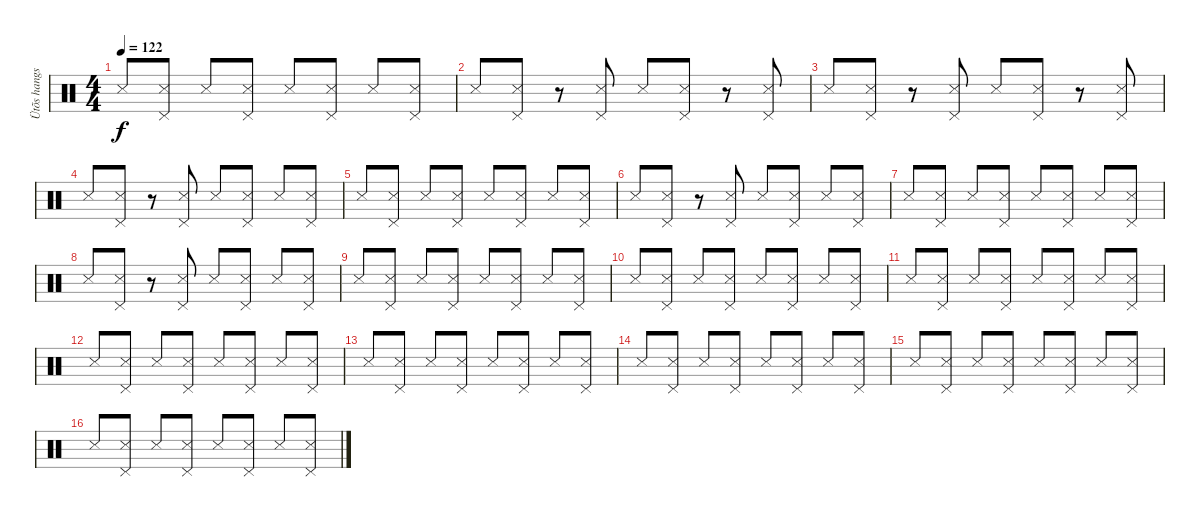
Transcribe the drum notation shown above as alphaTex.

\track ("Ütõs hangszer" "Ütõs hangs") {instrument percussion}
\staff {score}
\articulation defaults
\ts (4 4)
\tempo 122
\clef neutral
\ks c "Snare (side stick) 3".8{dy f}
("Snare (side stick) 3" "Pedal Hi-Hat (hit)").8 "Snare (side stick) 3".8 ("Snare (side stick) 3" "Pedal Hi-Hat (hit)").8 "Snare (side stick) 3".8 ("Snare (side stick) 3" "Pedal Hi-Hat (hit)").8 "Snare (side stick) 3".8 ("Snare (side stick) 3" "Pedal Hi-Hat (hit)").8 |
"Snare (side stick) 3".8 ("Snare (side stick) 3" "Pedal Hi-Hat (hit)").8 r.8 ("Snare (side stick) 3" "Pedal Hi-Hat (hit)").8 "Snare (side stick) 3".8 ("Snare (side stick) 3" "Pedal Hi-Hat (hit)").8 r.8 ("Snare (side stick) 3" "Pedal Hi-Hat (hit)").8 |
"Snare (side stick) 3".8 ("Snare (side stick) 3" "Pedal Hi-Hat (hit)").8 r.8 ("Snare (side stick) 3" "Pedal Hi-Hat (hit)").8 "Snare (side stick) 3".8 ("Snare (side stick) 3" "Pedal Hi-Hat (hit)").8 r.8 ("Snare (side stick) 3" "Pedal Hi-Hat (hit)").8 |
"Snare (side stick) 3".8 ("Snare (side stick) 3" "Pedal Hi-Hat (hit)").8 r.8 ("Snare (side stick) 3" "Pedal Hi-Hat (hit)").8 "Snare (side stick) 3".8 ("Snare (side stick) 3" "Pedal Hi-Hat (hit)").8 "Snare (side stick) 3".8 ("Snare (side stick) 3" "Pedal Hi-Hat (hit)").8 |
"Snare (side stick) 3".8 ("Snare (side stick) 3" "Pedal Hi-Hat (hit)").8 "Snare (side stick) 3".8 ("Snare (side stick) 3" "Pedal Hi-Hat (hit)").8 "Snare (side stick) 3".8 ("Snare (side stick) 3" "Pedal Hi-Hat (hit)").8 "Snare (side stick) 3".8 ("Snare (side stick) 3" "Pedal Hi-Hat (hit)").8 |
"Snare (side stick) 3".8 ("Snare (side stick) 3" "Pedal Hi-Hat (hit)").8 r.8 ("Snare (side stick) 3" "Pedal Hi-Hat (hit)").8 "Snare (side stick) 3".8 ("Snare (side stick) 3" "Pedal Hi-Hat (hit)").8 "Snare (side stick) 3".8 ("Snare (side stick) 3" "Pedal Hi-Hat (hit)").8 |
"Snare (side stick) 3".8 ("Snare (side stick) 3" "Pedal Hi-Hat (hit)").8 "Snare (side stick) 3".8 ("Snare (side stick) 3" "Pedal Hi-Hat (hit)").8 "Snare (side stick) 3".8 ("Snare (side stick) 3" "Pedal Hi-Hat (hit)").8 "Snare (side stick) 3".8 ("Snare (side stick) 3" "Pedal Hi-Hat (hit)").8 |
"Snare (side stick) 3".8 ("Snare (side stick) 3" "Pedal Hi-Hat (hit)").8 r.8 ("Snare (side stick) 3" "Pedal Hi-Hat (hit)").8 "Snare (side stick) 3".8 ("Snare (side stick) 3" "Pedal Hi-Hat (hit)").8 "Snare (side stick) 3".8 ("Snare (side stick) 3" "Pedal Hi-Hat (hit)").8 |
"Snare (side stick) 3".8 ("Snare (side stick) 3" "Pedal Hi-Hat (hit)").8 "Snare (side stick) 3".8 ("Snare (side stick) 3" "Pedal Hi-Hat (hit)").8 "Snare (side stick) 3".8 ("Snare (side stick) 3" "Pedal Hi-Hat (hit)").8 "Snare (side stick) 3".8 ("Snare (side stick) 3" "Pedal Hi-Hat (hit)").8 |
"Snare (side stick) 3".8 ("Snare (side stick) 3" "Pedal Hi-Hat (hit)").8 "Snare (side stick) 3".8 ("Snare (side stick) 3" "Pedal Hi-Hat (hit)").8 "Snare (side stick) 3".8 ("Snare (side stick) 3" "Pedal Hi-Hat (hit)").8 "Snare (side stick) 3".8 ("Snare (side stick) 3" "Pedal Hi-Hat (hit)").8 |
"Snare (side stick) 3".8 ("Snare (side stick) 3" "Pedal Hi-Hat (hit)").8 "Snare (side stick) 3".8 ("Snare (side stick) 3" "Pedal Hi-Hat (hit)").8 "Snare (side stick) 3".8 ("Snare (side stick) 3" "Pedal Hi-Hat (hit)").8 "Snare (side stick) 3".8 ("Snare (side stick) 3" "Pedal Hi-Hat (hit)").8 |
"Snare (side stick) 3".8 ("Snare (side stick) 3" "Pedal Hi-Hat (hit)").8 "Snare (side stick) 3".8 ("Snare (side stick) 3" "Pedal Hi-Hat (hit)").8 "Snare (side stick) 3".8 ("Snare (side stick) 3" "Pedal Hi-Hat (hit)").8 "Snare (side stick) 3".8 ("Snare (side stick) 3" "Pedal Hi-Hat (hit)").8 |
"Snare (side stick) 3".8 ("Snare (side stick) 3" "Pedal Hi-Hat (hit)").8 "Snare (side stick) 3".8 ("Snare (side stick) 3" "Pedal Hi-Hat (hit)").8 "Snare (side stick) 3".8 ("Snare (side stick) 3" "Pedal Hi-Hat (hit)").8 "Snare (side stick) 3".8 ("Snare (side stick) 3" "Pedal Hi-Hat (hit)").8 |
"Snare (side stick) 3".8 ("Snare (side stick) 3" "Pedal Hi-Hat (hit)").8 "Snare (side stick) 3".8 ("Snare (side stick) 3" "Pedal Hi-Hat (hit)").8 "Snare (side stick) 3".8 ("Snare (side stick) 3" "Pedal Hi-Hat (hit)").8 "Snare (side stick) 3".8 ("Snare (side stick) 3" "Pedal Hi-Hat (hit)").8 |
"Snare (side stick) 3".8 ("Snare (side stick) 3" "Pedal Hi-Hat (hit)").8 "Snare (side stick) 3".8 ("Snare (side stick) 3" "Pedal Hi-Hat (hit)").8 "Snare (side stick) 3".8 ("Snare (side stick) 3" "Pedal Hi-Hat (hit)").8 "Snare (side stick) 3".8 ("Snare (side stick) 3" "Pedal Hi-Hat (hit)").8 |
"Snare (side stick) 3".8 ("Snare (side stick) 3" "Pedal Hi-Hat (hit)").8 "Snare (side stick) 3".8 ("Snare (side stick) 3" "Pedal Hi-Hat (hit)").8 "Snare (side stick) 3".8 ("Snare (side stick) 3" "Pedal Hi-Hat (hit)").8 "Snare (side stick) 3".8 ("Snare (side stick) 3" "Pedal Hi-Hat (hit)").8
